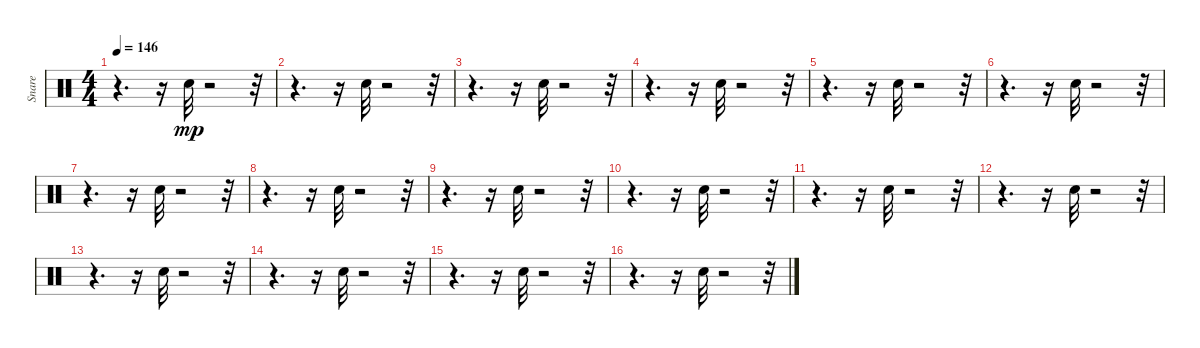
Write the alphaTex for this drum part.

\track ("Snare" "Snare") {instrument percussion}
\staff {score}
\articulation defaults
\ts (4 4)
\tempo 146
\clef neutral
\ks c
r.4{d dy mp} r.16 "Electric Snare (hit)".32 r.2 r.32 |
r.4{d} r.16 "Electric Snare (hit)".32 r.2 r.32 |
r.4{d} r.16 "Electric Snare (hit)".32 r.2 r.32 |
r.4{d} r.16 "Electric Snare (hit)".32 r.2 r.32 |
r.4{d} r.16 "Electric Snare (hit)".32 r.2 r.32 |
r.4{d} r.16 "Electric Snare (hit)".32 r.2 r.32 |
r.4{d} r.16 "Electric Snare (hit)".32 r.2 r.32 |
r.4{d} r.16 "Electric Snare (hit)".32 r.2 r.32 |
r.4{d} r.16 "Electric Snare (hit)".32 r.2 r.32 |
r.4{d} r.16 "Electric Snare (hit)".32 r.2 r.32 |
r.4{d} r.16 "Electric Snare (hit)".32 r.2 r.32 |
r.4{d} r.16 "Electric Snare (hit)".32 r.2 r.32 |
r.4{d} r.16 "Electric Snare (hit)".32 r.2 r.32 |
r.4{d} r.16 "Electric Snare (hit)".32 r.2 r.32 |
r.4{d} r.16 "Electric Snare (hit)".32 r.2 r.32 |
r.4{d} r.16 "Electric Snare (hit)".32 r.2 r.32
